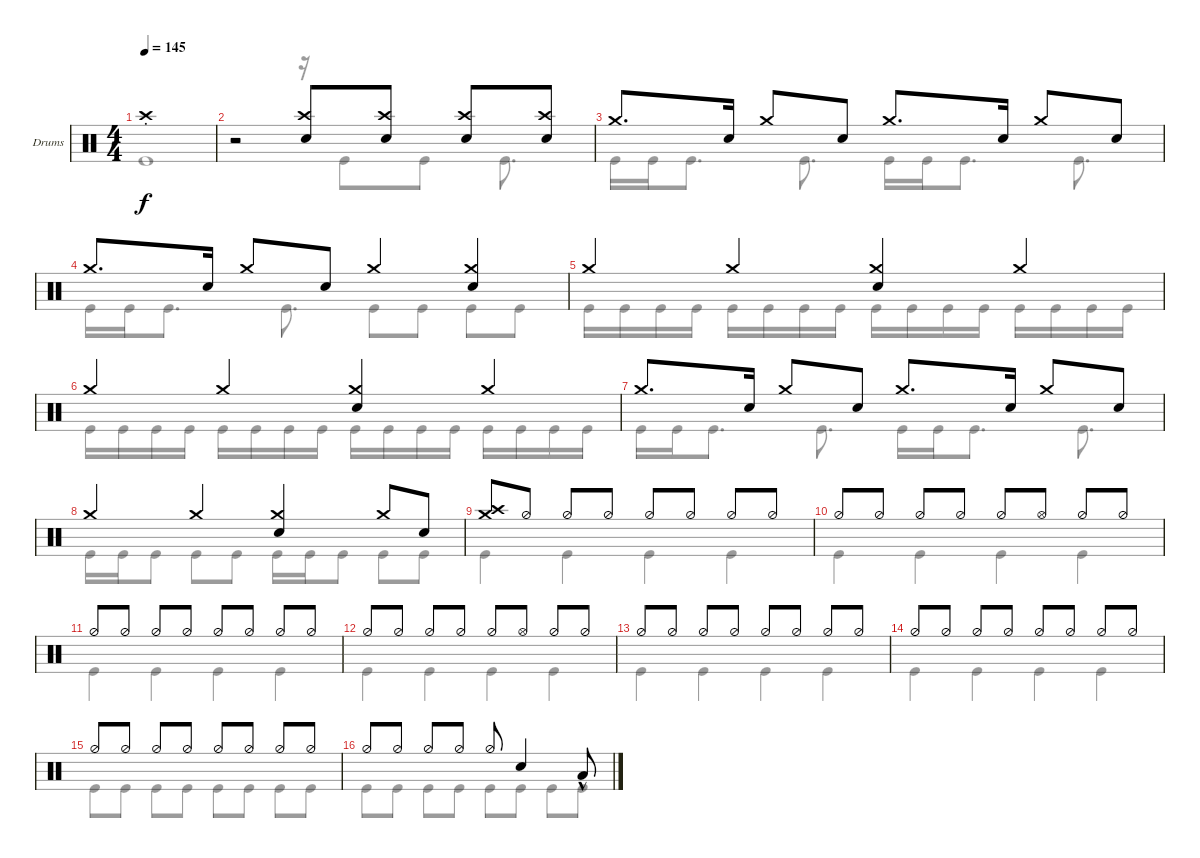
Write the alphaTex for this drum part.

\defaultSystemsLayout 4
\bracketExtendMode groupsimilarinstruments
\firstSystemTrackNameOrientation horizontal
\otherSystemsTrackNameOrientation horizontal
\track ("Drumkit" "Drums") {instrument percussion}
\staff {score}
\articulation defaults
\voice
\ts (4 4)
\tempo 145
\clef neutral
\scale
1.02648
\ks c "Crash high (hit)"{st}.1{dy f}
|
\scale
0.973518 r.2 ("Crash high (hit)" "Snare (hit) 2").8 ("Crash high (hit)" "Snare (hit) 2").8 ("Crash high (hit)" "Snare (hit) 2").8 ("Crash high (hit)" "Snare (hit) 2").8 |
\scale
1.02648 "Crash medium (hit)".8{d} "Snare (hit) 2".16 "Crash medium (hit)".8 "Snare (hit) 2".8 "Crash medium (hit)".8{d} "Snare (hit) 2".16 "Crash medium (hit)".8 "Snare (hit) 2".8 |
\scale
0.973518 "Crash medium (hit)".8{d} "Snare (hit) 2".16 "Crash medium (hit)".8 "Snare (hit) 2".8 "Crash medium (hit)".4 ("Crash medium (hit)" "Snare (hit) 2").4 |
\scale
1.02648 "Crash medium (hit)".4 "Crash medium (hit)".4 ("Crash medium (hit)" "Snare (hit) 2").4 "Crash medium (hit)".4 |
\scale
0.973518 "Crash medium (hit)".4 "Crash medium (hit)".4 ("Crash medium (hit)" "Snare (hit) 2").4 "Crash medium (hit)".4 |
\scale
1.02648 "Crash medium (hit)".8{d} "Snare (hit) 2".16 "Crash medium (hit)".8 "Snare (hit) 2".8 "Crash medium (hit)".8{d} "Snare (hit) 2".16 "Crash medium (hit)".8 "Snare (hit) 2".8 |
\scale
0.973518 "Crash medium (hit)".4 "Crash medium (hit)".4 ("Crash medium (hit)" "Snare (hit) 2").4 "Crash medium (hit)".8 "Snare (hit) 2".8 |
\scale
1.02648 ("Crash medium (hit)" "Crash high (hit)").8 "Hi-Hat (half)".8 "Hi-Hat (half)".8 "Hi-Hat (half)".8 "Hi-Hat (half)".8 "Hi-Hat (half)".8 "Hi-Hat (half)".8 "Hi-Hat (half)".8 |
\scale
0.973518 "Hi-Hat (half)".8 "Hi-Hat (half)".8 "Hi-Hat (half)".8 "Hi-Hat (half)".8 "Hi-Hat (half)".8 "Hi-Hat (open)".8 "Hi-Hat (half)".8 "Hi-Hat (half)".8 |
\scale
1.02648 "Hi-Hat (half)".8 "Hi-Hat (half)".8 "Hi-Hat (half)".8 "Hi-Hat (half)".8 "Hi-Hat (half)".8 "Hi-Hat (half)".8 "Hi-Hat (half)".8 "Hi-Hat (half)".8 |
\scale
0.973518 "Hi-Hat (half)".8 "Hi-Hat (half)".8 "Hi-Hat (half)".8 "Hi-Hat (half)".8 "Hi-Hat (half)".8 "Hi-Hat (open)".8 "Hi-Hat (half)".8 "Hi-Hat (half)".8 |
\scale
1.02648 "Hi-Hat (half)".8 "Hi-Hat (half)".8 "Hi-Hat (half)".8 "Hi-Hat (half)".8 "Hi-Hat (half)".8 "Hi-Hat (half)".8 "Hi-Hat (half)".8 "Hi-Hat (half)".8 |
\scale
0.973518 "Hi-Hat (half)".8 "Hi-Hat (half)".8 "Hi-Hat (half)".8 "Hi-Hat (half)".8 "Hi-Hat (half)".8 "Hi-Hat (half)".8 "Hi-Hat (half)".8 "Hi-Hat (half)".8 |
\scale
1.02648 "Hi-Hat (half)".8 "Hi-Hat (half)".8 "Hi-Hat (half)".8 "Hi-Hat (half)".8 "Hi-Hat (half)".8 "Hi-Hat (half)".8 "Hi-Hat (half)".8 "Hi-Hat (half)".8 |
\scale
0.973518 "Hi-Hat (half)".8 "Hi-Hat (half)".8 "Hi-Hat (half)".8 "Hi-Hat (half)".8 "Hi-Hat (half)".8 "Snare (hit) 2".4 "Low Tom (hit)"{hac}.8
\voice
\clef neutral
\ottava regular
\simile none
\scale
1.02648
\ks c "Kick (hit)".1{dy f}
|
\scale
0.973518 r.2 r.16 "Kick (hit)".8 "Kick (hit)".8 "Kick (hit)".8{d} |
\scale
1.02648 "Kick (hit)".16 "Kick (hit)".16 "Kick (hit)".8{d} "Kick (hit)".8{d} "Kick (hit)".16 "Kick (hit)".16 "Kick (hit)".8{d} "Kick (hit)".8{d} |
\scale
0.973518 "Kick (hit)".16 "Kick (hit)".16 "Kick (hit)".8{d} "Kick (hit)".8{d} "Kick (hit)".8 "Kick (hit)".8 "Kick (hit)".8 "Kick (hit)".8 |
\scale
1.02648 "Kick (hit)".16 "Kick (hit)".16 "Kick (hit)".16 "Kick (hit)".16 "Kick (hit)".16 "Kick (hit)".16 "Kick (hit)".16 "Kick (hit)".16 "Kick (hit)".16 "Kick (hit)".16 "Kick (hit)".16 "Kick (hit)".16 "Kick (hit)".16 "Kick (hit)".16 "Kick (hit)".16 "Kick (hit)".16 |
\scale
0.973518 "Kick (hit)".16 "Kick (hit)".16 "Kick (hit)".16 "Kick (hit)".16 "Kick (hit)".16 "Kick (hit)".16 "Kick (hit)".16 "Kick (hit)".16 "Kick (hit)".16 "Kick (hit)".16 "Kick (hit)".16 "Kick (hit)".16 "Kick (hit)".16 "Kick (hit)".16 "Kick (hit)".16 "Kick (hit)".16 |
\scale
1.02648 "Kick (hit)".16 "Kick (hit)".16 "Kick (hit)".8{d} "Kick (hit)".8{d} "Kick (hit)".16 "Kick (hit)".16 "Kick (hit)".8{d} "Kick (hit)".8{d} |
\scale
0.973518 "Kick (hit)".16 "Kick (hit)".16 "Kick (hit)".8 "Kick (hit)".8 "Kick (hit)".8 "Kick (hit)".16 "Kick (hit)".16 "Kick (hit)".8 "Kick (hit)".8 "Kick (hit)".8 |
\scale
1.02648 "Kick (hit)".4 "Kick (hit)".4 "Kick (hit)".4 "Kick (hit)".4 |
\scale
0.973518 "Kick (hit)".4 "Kick (hit)".4 "Kick (hit)".4 "Kick (hit)".4 |
\scale
1.02648 "Kick (hit)".4 "Kick (hit)".4 "Kick (hit)".4 "Kick (hit)".4 |
\scale
0.973518 "Kick (hit)".4 "Kick (hit)".4 "Kick (hit)".4 "Kick (hit)".4 |
\scale
1.02648 "Kick (hit)".4 "Kick (hit)".4 "Kick (hit)".4 "Kick (hit)".4 |
\scale
0.973518 "Kick (hit)".4 "Kick (hit)".4 "Kick (hit)".4 "Kick (hit)".4 |
\scale
1.02648 "Kick (hit)".8 "Kick (hit)".8 "Kick (hit)".8 "Kick (hit)".8 "Kick (hit)".8 "Kick (hit)".8 "Kick (hit)".8 "Kick (hit)".8 |
\scale
0.973518 "Kick (hit)".8 "Kick (hit)".8 "Kick (hit)".8 "Kick (hit)".8 "Kick (hit)".8 "Kick (hit)".8 "Kick (hit)".8 "Kick (hit)".8
